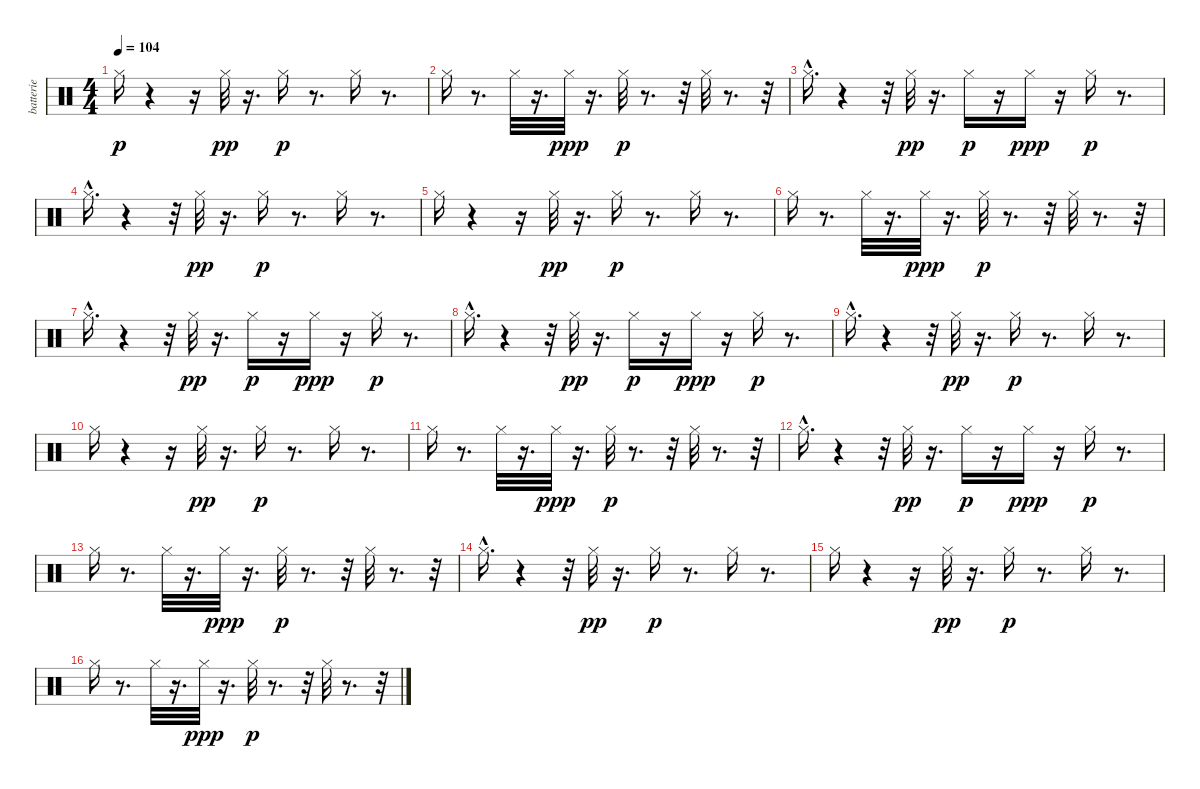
\track ("batterie" "batterie") {instrument percussion}
\staff {score}
\articulation defaults
\ts (4 4)
\tempo 104
\clef neutral
\ks c "Hi-Hat (closed)".16{dy p}
r.4 r.16 "Hi-Hat (closed)".32{dy pp} r.16{d} "Hi-Hat (closed)".16{dy p} r.8{d} "Hi-Hat (closed)".16 r.8{d} |
"Hi-Hat (closed)".16 r.8{d} "Hi-Hat (closed)".32 r.16{d} "Hi-Hat (closed)".32{dy ppp} r.16{d} "Hi-Hat (closed)".32{dy p} r.8{d} r.32 "Hi-Hat (closed)".32 r.8{d} r.32 |
"Hi-Hat (closed)"{hac}.16{d} r.4 r.32 "Hi-Hat (closed)".32{dy pp} r.16{d} "Hi-Hat (closed)".16{dy p} r.16 "Hi-Hat (closed)".16{dy ppp} r.16 "Hi-Hat (closed)".16{dy p} r.8{d} |
"Hi-Hat (closed)"{hac}.16{d} r.4 r.32 "Hi-Hat (closed)".32{dy pp} r.16{d} "Hi-Hat (closed)".16{dy p} r.8{d} "Hi-Hat (closed)".16 r.8{d} |
"Hi-Hat (closed)".16 r.4 r.16 "Hi-Hat (closed)".32{dy pp} r.16{d} "Hi-Hat (closed)".16{dy p} r.8{d} "Hi-Hat (closed)".16 r.8{d} |
"Hi-Hat (closed)".16 r.8{d} "Hi-Hat (closed)".32 r.16{d} "Hi-Hat (closed)".32{dy ppp} r.16{d} "Hi-Hat (closed)".32{dy p} r.8{d} r.32 "Hi-Hat (closed)".32 r.8{d} r.32 |
"Hi-Hat (closed)"{hac}.16{d} r.4 r.32 "Hi-Hat (closed)".32{dy pp} r.16{d} "Hi-Hat (closed)".16{dy p} r.16 "Hi-Hat (closed)".16{dy ppp} r.16 "Hi-Hat (closed)".16{dy p} r.8{d} |
"Hi-Hat (closed)"{hac}.16{d} r.4 r.32 "Hi-Hat (closed)".32{dy pp} r.16{d} "Hi-Hat (closed)".16{dy p} r.16 "Hi-Hat (closed)".16{dy ppp} r.16 "Hi-Hat (closed)".16{dy p} r.8{d} |
"Hi-Hat (closed)"{hac}.16{d} r.4 r.32 "Hi-Hat (closed)".32{dy pp} r.16{d} "Hi-Hat (closed)".16{dy p} r.8{d} "Hi-Hat (closed)".16 r.8{d} |
"Hi-Hat (closed)".16 r.4 r.16 "Hi-Hat (closed)".32{dy pp} r.16{d} "Hi-Hat (closed)".16{dy p} r.8{d} "Hi-Hat (closed)".16 r.8{d} |
"Hi-Hat (closed)".16 r.8{d} "Hi-Hat (closed)".32 r.16{d} "Hi-Hat (closed)".32{dy ppp} r.16{d} "Hi-Hat (closed)".32{dy p} r.8{d} r.32 "Hi-Hat (closed)".32 r.8{d} r.32 |
"Hi-Hat (closed)"{hac}.16{d} r.4 r.32 "Hi-Hat (closed)".32{dy pp} r.16{d} "Hi-Hat (closed)".16{dy p} r.16 "Hi-Hat (closed)".16{dy ppp} r.16 "Hi-Hat (closed)".16{dy p} r.8{d} |
"Hi-Hat (closed)".16 r.8{d} "Hi-Hat (closed)".32 r.16{d} "Hi-Hat (closed)".32{dy ppp} r.16{d} "Hi-Hat (closed)".32{dy p} r.8{d} r.32 "Hi-Hat (closed)".32 r.8{d} r.32 |
"Hi-Hat (closed)"{hac}.16{d} r.4 r.32 "Hi-Hat (closed)".32{dy pp} r.16{d} "Hi-Hat (closed)".16{dy p} r.8{d} "Hi-Hat (closed)".16 r.8{d} |
"Hi-Hat (closed)".16 r.4 r.16 "Hi-Hat (closed)".32{dy pp} r.16{d} "Hi-Hat (closed)".16{dy p} r.8{d} "Hi-Hat (closed)".16 r.8{d} |
"Hi-Hat (closed)".16 r.8{d} "Hi-Hat (closed)".32 r.16{d} "Hi-Hat (closed)".32{dy ppp} r.16{d} "Hi-Hat (closed)".32{dy p} r.8{d} r.32 "Hi-Hat (closed)".32 r.8{d} r.32
